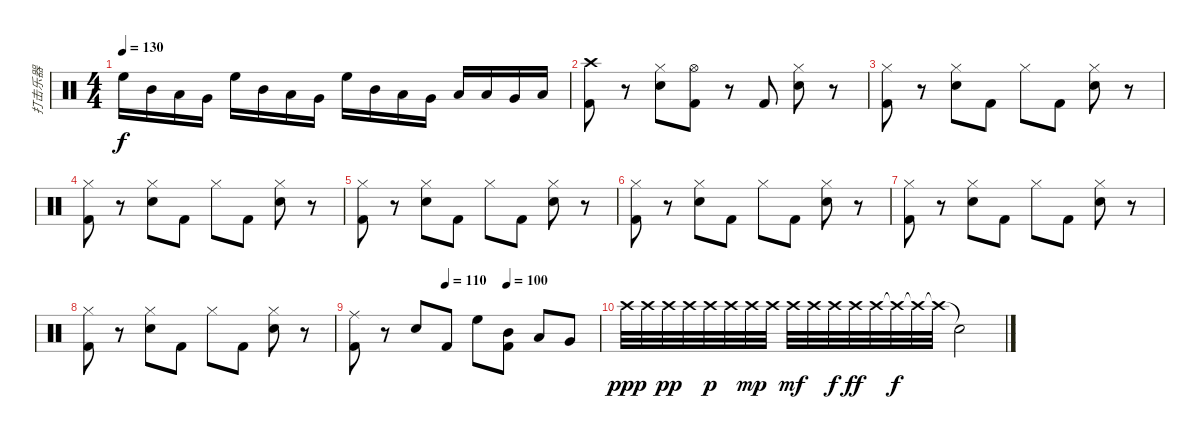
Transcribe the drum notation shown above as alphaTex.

\track ("打击乐器" "打击乐器") {instrument percussion}
\staff {score}
\articulation defaults
\ts (4 4)
\tempo 130
\clef neutral
\ks c "High Floor Tom (hit)".16{dy f} "Mid Tom (hit)".16 "Low Tom (hit)".16 "Very Low Tom (hit)".16 "High Floor Tom (hit)".16 "Mid Tom (hit)".16 "Low Tom (hit)".16 "Very Low Tom (hit)".16 "High Floor Tom (hit)".16 "Mid Tom (hit)".16 "Low Tom (hit)".16 "Very Low Tom (hit)".16 "Low Floor Tom (hit)".16 "Low Tom (hit)".16 "Very Low Tom (hit)".16 "Low Floor Tom (hit)".16
|
("Crash high (hit)" "Kick (hit) 2").8 r.8 ("Hi-Hat (closed)" "Electric Snare (hit)").8 ("Hi-Hat (open)" "Kick (hit) 2").8 r.8 "Kick (hit) 2".8 ("Hi-Hat (closed)" "Electric Snare (hit)").8 r.8 |
("Hi-Hat (closed)" "Kick (hit) 2").8 r.8 ("Hi-Hat (closed)" "Electric Snare (hit)").8 "Kick (hit) 2".8 "Hi-Hat (closed)".8 "Kick (hit) 2".8 ("Hi-Hat (closed)" "Electric Snare (hit)").8 r.8 |
("Hi-Hat (closed)" "Kick (hit) 2").8 r.8 ("Hi-Hat (closed)" "Electric Snare (hit)").8 "Kick (hit) 2".8 "Hi-Hat (closed)".8 "Kick (hit) 2".8 ("Hi-Hat (closed)" "Electric Snare (hit)").8 r.8 |
("Hi-Hat (closed)" "Kick (hit) 2").8 r.8 ("Hi-Hat (closed)" "Electric Snare (hit)").8 "Kick (hit) 2".8 "Hi-Hat (closed)".8 "Kick (hit) 2".8 ("Hi-Hat (closed)" "Electric Snare (hit)").8 r.8 |
("Hi-Hat (closed)" "Kick (hit) 2").8 r.8 ("Hi-Hat (closed)" "Electric Snare (hit)").8 "Kick (hit) 2".8 "Hi-Hat (closed)".8 "Kick (hit) 2".8 ("Hi-Hat (closed)" "Electric Snare (hit)").8 r.8 |
("Hi-Hat (closed)" "Kick (hit) 2").8 r.8 ("Hi-Hat (closed)" "Electric Snare (hit)").8 "Kick (hit) 2".8 "Hi-Hat (closed)".8 "Kick (hit) 2".8 ("Hi-Hat (closed)" "Electric Snare (hit)").8 r.8 |
("Hi-Hat (closed)" "Kick (hit) 2").8 r.8 ("Hi-Hat (closed)" "Electric Snare (hit)").8 "Kick (hit) 2".8 "Hi-Hat (closed)".8 "Kick (hit) 2".8 ("Hi-Hat (closed)" "Electric Snare (hit)").8 r.8 |
\tempo (110 0.375)
\tempo (100 0.625)
("Ride (middle)" "Kick (hit) 2").8 r.8 "Electric Snare (hit)".8 "Kick (hit) 2".8 "High Floor Tom (hit)".8 ("Mid Tom (hit)" "Kick (hit) 2").8 "Low Tom (hit)".8 "Very Low Tom (hit)".8 |
"Crash high (hit)".32{dy ppp} "Crash high (hit)".32 "Crash high (hit)".32{dy pp} "Crash high (hit)".32 "Crash high (hit)".32{dy p} "Crash high (hit)".32 "Crash high (hit)".32{dy mp} "Crash high (hit)".32 "Crash high (hit)".32{dy mf} "Crash high (hit)".32 "Crash high (hit)".32{dy f} "Crash high (hit)".32{dy ff} "Crash high (hit)".32 "Crash high (hit)"{t}.32{dy f} "Crash high (hit)"{t}.32 "Crash high (hit)"{t}.32 "Snare (hit)"{t}.2
